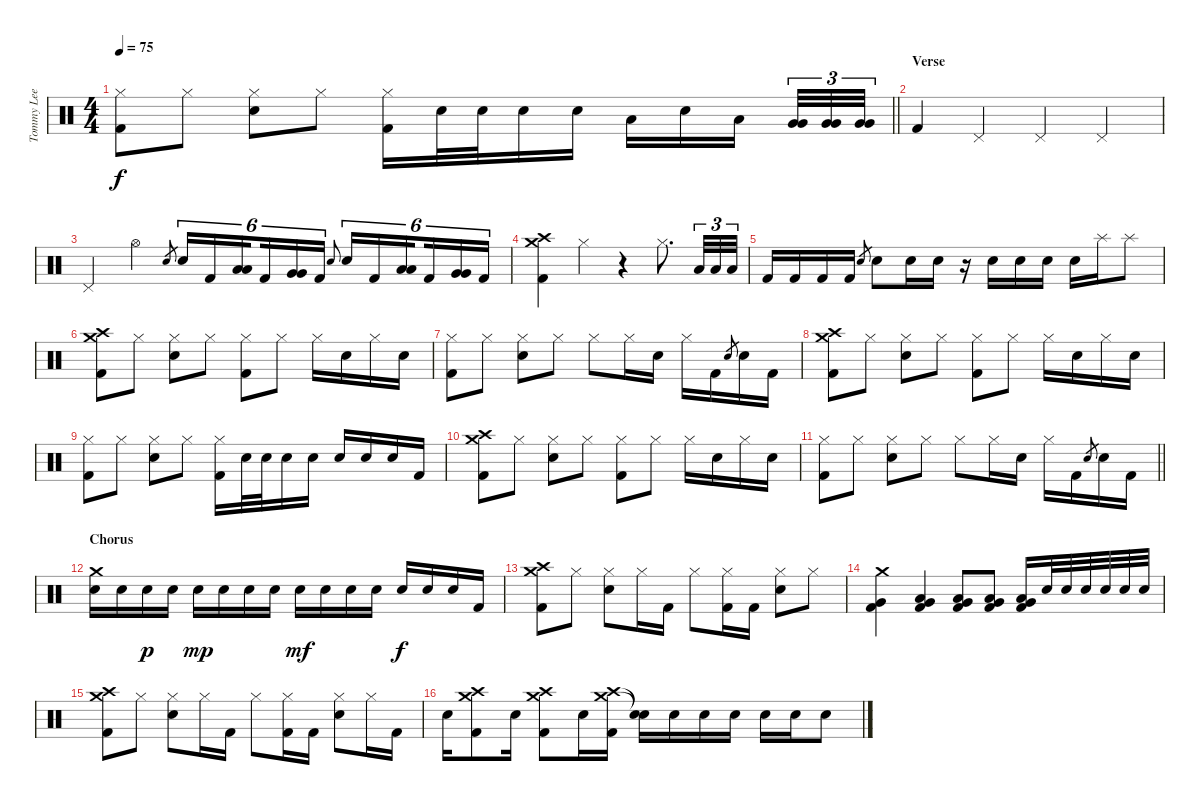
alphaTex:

\track ("Tommy Lee - Drums" "Tommy Lee ") {instrument percussion}
\staff {score}
\articulation defaults
\ts (4 4)
\tempo 75
\clef neutral
\barLineRight lightlight
\ks c
("Hi-Hat (closed)" "Kick (hit) 2").8{dy f} "Hi-Hat (closed)".8 ("Hi-Hat (closed)" "Snare (hit) 2").8 "Hi-Hat (closed)".8 ("Hi-Hat (closed)" "Kick (hit) 2").16 "Snare (hit) 2".32 "Snare (hit) 2".32 "Snare (hit) 2".16 "Snare (hit) 2".16 "Low Tom (hit)".16 "Snare (hit) 2".16 "Low Tom (hit)".16{beam splitsecondary} ("Very Low Tom (hit)" "Very Low Tom (hit)").32{tu (3 2)} ("Very Low Tom (hit)" "Very Low Tom (hit)").32{tu (3 2)} ("Very Low Tom (hit)" "Very Low Tom (hit)").32{tu (3 2)} |
\section ("" "Verse")
"Kick (hit) 2".4 "Pedal Hi-Hat (hit)".4 "Pedal Hi-Hat (hit)".4 "Pedal Hi-Hat (hit)".4 |
"Pedal Hi-Hat (hit)".4 "Hi-Hat (open)".4 "Snare (hit) 2".8{gr} "Snare (hit) 2".16{tu (6 4)} "Kick (hit) 2".16{tu (6 4)} ("Low Tom (hit)" "Low Tom (hit)").16{tu (6 4) beam splitsecondary} "Kick (hit) 2".16{tu (6 4)} ("Very Low Tom (hit)" "Very Low Tom (hit)").16{tu (6 4)} "Kick (hit) 2".16{tu (6 4)} "Snare (hit) 2".8{gr onbeat} "Snare (hit) 2".16{tu (6 4)} "Kick (hit) 2".16{tu (6 4)} ("Low Tom (hit)" "Low Tom (hit)").16{tu (6 4) beam splitsecondary} "Kick (hit) 2".16{tu (6 4)} ("Very Low Tom (hit)" "Very Low Tom (hit)").16{tu (6 4)} "Kick (hit) 2".16{tu (6 4)} |
("Crash medium (hit)" "Crash high (hit)" "Kick (hit) 2").4 "Hi-Hat (closed)".4 r.4 "Hi-Hat (closed)".8{d} "Low Tom (hit)".32{tu (3 2)} "Low Tom (hit)".32{tu (3 2)} "Low Tom (hit)".32{tu (3 2)} |
"Kick (hit) 2".16 "Kick (hit) 2".16 "Kick (hit) 2".16 "Kick (hit) 2".16 "Snare (hit) 2".8{gr} "Snare (hit) 2".8 "Snare (hit) 2".16 "Snare (hit) 2".16 r.16 "Snare (hit) 2".16 "Snare (hit) 2".16 "Snare (hit) 2".16 "Snare (hit) 2".16 "Splash (hit)".16 "Splash (hit)".8 |
("Crash medium (hit)" "Crash high (hit)" "Kick (hit) 2").8 "Hi-Hat (closed)".8 ("Hi-Hat (closed)" "Snare (hit) 2").8 "Hi-Hat (closed)".8 ("Hi-Hat (closed)" "Kick (hit) 2").8 "Hi-Hat (closed)".8 "Hi-Hat (closed)".16 "Snare (hit) 2".16 "Hi-Hat (closed)".16 "Snare (hit) 2".16 |
("Hi-Hat (closed)" "Kick (hit) 2").8 "Hi-Hat (closed)".8 ("Hi-Hat (closed)" "Snare (hit) 2").8 "Hi-Hat (closed)".8 "Hi-Hat (closed)".8 "Hi-Hat (closed)".16 "Snare (hit) 2".16 "Hi-Hat (closed)".16 "Kick (hit) 2".16 "Snare (hit) 2".8{gr} "Snare (hit) 2".16 "Kick (hit) 2".16 |
("Crash medium (hit)" "Crash high (hit)" "Kick (hit) 2").8 "Hi-Hat (closed)".8 ("Hi-Hat (closed)" "Snare (hit) 2").8 "Hi-Hat (closed)".8 ("Hi-Hat (closed)" "Kick (hit) 2").8 "Hi-Hat (closed)".8 "Hi-Hat (closed)".16 "Snare (hit) 2".16 "Hi-Hat (closed)".16 "Snare (hit) 2".16 |
("Hi-Hat (closed)" "Kick (hit) 2").8 "Hi-Hat (closed)".8 ("Hi-Hat (closed)" "Snare (hit) 2").8 "Hi-Hat (closed)".8 ("Hi-Hat (closed)" "Kick (hit) 2").16 "Snare (hit) 2".32 "Snare (hit) 2".32 "Snare (hit) 2".16 "Snare (hit) 2".16 "Snare (hit) 2".16 "Snare (hit) 2".16 "Snare (hit) 2".16 "Kick (hit) 2".16 |
("Crash medium (hit)" "Crash high (hit)" "Kick (hit) 2").8 "Hi-Hat (closed)".8 ("Hi-Hat (closed)" "Snare (hit) 2").8 "Hi-Hat (closed)".8 ("Hi-Hat (closed)" "Kick (hit) 2").8 "Hi-Hat (closed)".8 "Hi-Hat (closed)".16 "Snare (hit) 2".16 "Hi-Hat (closed)".16 "Snare (hit) 2".16 |
\barLineRight lightlight
("Hi-Hat (closed)" "Kick (hit) 2").8 "Hi-Hat (closed)".8 ("Hi-Hat (closed)" "Snare (hit) 2").8 "Hi-Hat (closed)".8 "Hi-Hat (closed)".8 "Hi-Hat (closed)".16 "Snare (hit) 2".16 "Hi-Hat (closed)".16 "Kick (hit) 2".16 "Snare (hit) 2".8{gr} "Snare (hit) 2".16 "Kick (hit) 2".16 |
\section ("" "Chorus")
("Crash medium (hit)" "Snare (hit) 2").16 "Snare (hit) 2".16 "Snare (hit) 2".16{dy p} "Snare (hit) 2".16 "Snare (hit) 2".16{dy mp} "Snare (hit) 2".16 "Snare (hit) 2".16 "Snare (hit) 2".16 "Snare (hit) 2".16{dy mf} "Snare (hit) 2".16 "Snare (hit) 2".16 "Snare (hit) 2".16 "Snare (hit) 2".16{dy f} "Snare (hit) 2".16 "Snare (hit) 2".16 "Kick (hit) 2".16 |
("Crash medium (hit)" "Crash high (hit)" "Kick (hit) 2").8 "Hi-Hat (closed)".8 ("Hi-Hat (closed)" "Snare (hit) 2").8 "Hi-Hat (closed)".16 "Kick (hit) 2".16 "Hi-Hat (closed)".8 ("Hi-Hat (closed)" "Kick (hit) 2").16 "Kick (hit) 2".16 ("Hi-Hat (closed)" "Snare (hit) 2").8 "Hi-Hat (closed)".8 |
("Crash medium (hit)" "Very Low Tom (hit)" "Kick (hit) 2").4 ("Low Tom (hit)" "Very Low Tom (hit)" "Kick (hit) 2").4 ("Low Tom (hit)" "Very Low Tom (hit)" "Kick (hit) 2").8 ("Low Tom (hit)" "Very Low Tom (hit)" "Kick (hit) 2").8 ("Low Tom (hit)" "Very Low Tom (hit)" "Kick (hit) 2").16 "Snare (hit) 2".32 "Snare (hit) 2".32 "Snare (hit) 2".32 "Snare (hit) 2".32 "Snare (hit) 2".32 "Snare (hit) 2".32 |
("Crash medium (hit)" "Crash high (hit)" "Kick (hit) 2").8 "Hi-Hat (closed)".8 ("Hi-Hat (closed)" "Snare (hit) 2").8 "Hi-Hat (closed)".16 "Kick (hit) 2".16 "Hi-Hat (closed)".8 ("Hi-Hat (closed)" "Kick (hit) 2").16 "Kick (hit) 2".16 ("Hi-Hat (closed)" "Snare (hit) 2").8 "Hi-Hat (closed)".16 "Kick (hit) 2".16 |
"Snare (hit) 2".16 ("Crash medium (hit)" "Crash high (hit)" "Kick (hit) 2").8 "Snare (hit) 2".16 ("Crash high (hit)" "Crash medium (hit)" "Kick (hit) 2").8 "Snare (hit) 2".16 ("Crash medium (hit)" "Crash high (hit)" "Kick (hit) 2").16 ("Snare (hit)"{t} "Snare (hit)"{t}).16 "Snare (hit) 2".16 "Snare (hit) 2".16 "Snare (hit) 2".16 "Snare (hit) 2".16 "Snare (hit) 2".16 "Snare (hit) 2".8
